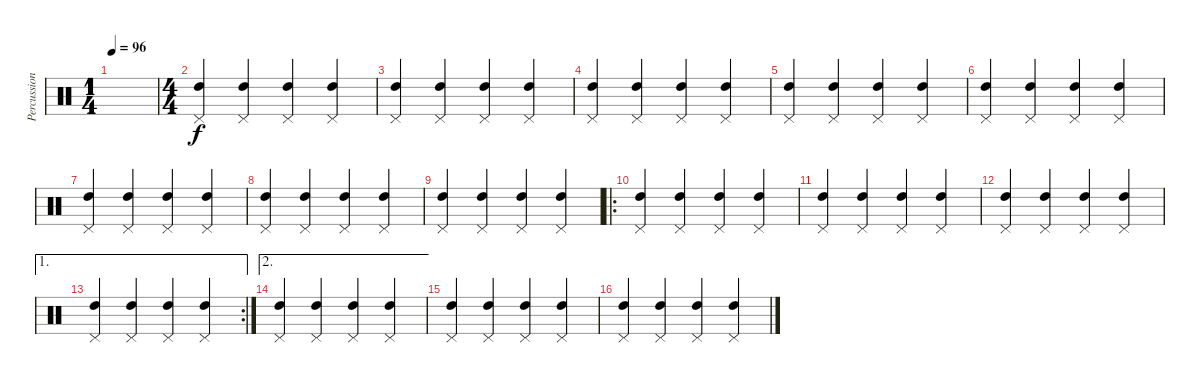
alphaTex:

\track ("Percussions" "Percussion") {instrument percussion}
\staff {score}
\articulation defaults
\ts (1 4)
\tempo 96
\clef neutral
\ks c
|
\ts (4 4)
("Pedal Hi-Hat (hit)" "High Tom (hit)").4 ("Pedal Hi-Hat (hit)" "High Tom (hit)").4 ("Pedal Hi-Hat (hit)" "High Tom (hit)").4 ("Pedal Hi-Hat (hit)" "High Tom (hit)").4 |
("Pedal Hi-Hat (hit)" "High Tom (hit)").4 ("Pedal Hi-Hat (hit)" "High Tom (hit)").4 ("Pedal Hi-Hat (hit)" "High Tom (hit)").4 ("Pedal Hi-Hat (hit)" "High Tom (hit)").4 |
("Pedal Hi-Hat (hit)" "High Tom (hit)").4 ("Pedal Hi-Hat (hit)" "High Tom (hit)").4 ("Pedal Hi-Hat (hit)" "High Tom (hit)").4 ("Pedal Hi-Hat (hit)" "High Tom (hit)").4 |
("Pedal Hi-Hat (hit)" "High Tom (hit)").4 ("Pedal Hi-Hat (hit)" "High Tom (hit)").4 ("Pedal Hi-Hat (hit)" "High Tom (hit)").4 ("Pedal Hi-Hat (hit)" "High Tom (hit)").4 |
("Pedal Hi-Hat (hit)" "High Tom (hit)").4 ("Pedal Hi-Hat (hit)" "High Tom (hit)").4 ("Pedal Hi-Hat (hit)" "High Tom (hit)").4 ("Pedal Hi-Hat (hit)" "High Tom (hit)").4 |
("Pedal Hi-Hat (hit)" "High Tom (hit)").4 ("Pedal Hi-Hat (hit)" "High Tom (hit)").4 ("Pedal Hi-Hat (hit)" "High Tom (hit)").4 ("Pedal Hi-Hat (hit)" "High Tom (hit)").4 |
("Pedal Hi-Hat (hit)" "High Tom (hit)").4 ("Pedal Hi-Hat (hit)" "High Tom (hit)").4 ("Pedal Hi-Hat (hit)" "High Tom (hit)").4 ("Pedal Hi-Hat (hit)" "High Tom (hit)").4 |
("Pedal Hi-Hat (hit)" "High Tom (hit)").4 ("Pedal Hi-Hat (hit)" "High Tom (hit)").4 ("Pedal Hi-Hat (hit)" "High Tom (hit)").4 ("Pedal Hi-Hat (hit)" "High Tom (hit)").4 |
\ro
("Pedal Hi-Hat (hit)" "High Tom (hit)").4 ("Pedal Hi-Hat (hit)" "High Tom (hit)").4 ("Pedal Hi-Hat (hit)" "High Tom (hit)").4 ("Pedal Hi-Hat (hit)" "High Tom (hit)").4 |
("Pedal Hi-Hat (hit)" "High Tom (hit)").4 ("Pedal Hi-Hat (hit)" "High Tom (hit)").4 ("Pedal Hi-Hat (hit)" "High Tom (hit)").4 ("Pedal Hi-Hat (hit)" "High Tom (hit)").4 |
("Pedal Hi-Hat (hit)" "High Tom (hit)").4 ("Pedal Hi-Hat (hit)" "High Tom (hit)").4 ("Pedal Hi-Hat (hit)" "High Tom (hit)").4 ("Pedal Hi-Hat (hit)" "High Tom (hit)").4 |
\ae 1
\rc 2
("Pedal Hi-Hat (hit)" "High Tom (hit)").4 ("Pedal Hi-Hat (hit)" "High Tom (hit)").4 ("Pedal Hi-Hat (hit)" "High Tom (hit)").4 ("Pedal Hi-Hat (hit)" "High Tom (hit)").4 |
\ae 2
("Pedal Hi-Hat (hit)" "High Tom (hit)").4 ("Pedal Hi-Hat (hit)" "High Tom (hit)").4 ("Pedal Hi-Hat (hit)" "High Tom (hit)").4 ("Pedal Hi-Hat (hit)" "High Tom (hit)").4 |
("Pedal Hi-Hat (hit)" "High Tom (hit)").4 ("Pedal Hi-Hat (hit)" "High Tom (hit)").4 ("Pedal Hi-Hat (hit)" "High Tom (hit)").4 ("Pedal Hi-Hat (hit)" "High Tom (hit)").4 |
("Pedal Hi-Hat (hit)" "High Tom (hit)").4 ("Pedal Hi-Hat (hit)" "High Tom (hit)").4 ("Pedal Hi-Hat (hit)" "High Tom (hit)").4 ("Pedal Hi-Hat (hit)" "High Tom (hit)").4
